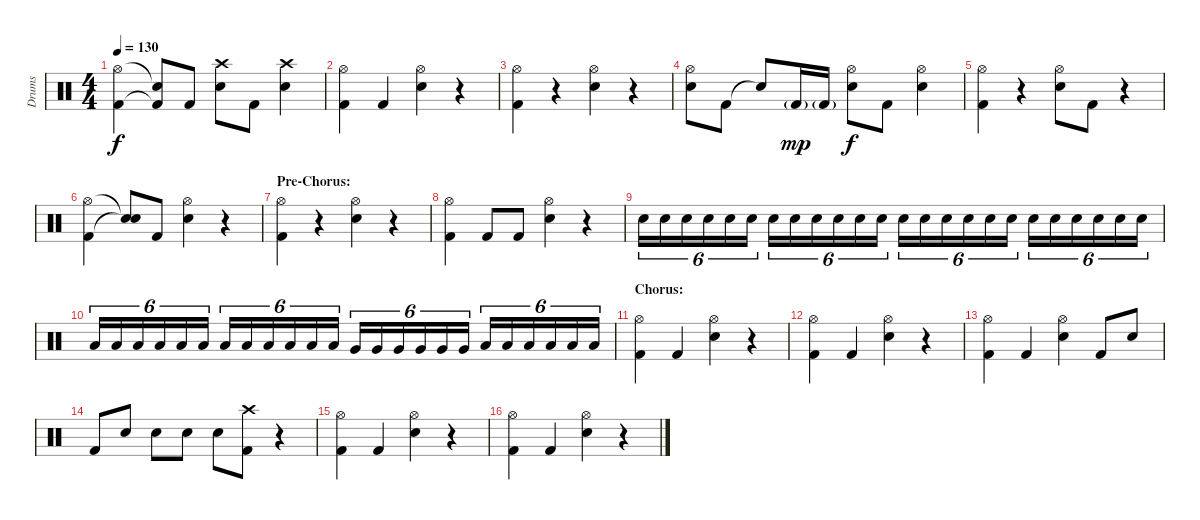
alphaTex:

\track ("Drums" "Drums") {instrument percussion}
\staff {score}
\articulation defaults
\ts (4 4)
\tempo 130
\clef neutral
\ks c
("Hi-Hat (open)" "Kick (hit) 2").4{dy f} ("Snare (hit)"{t} "Kick (hit) 2"{t}).8 "Kick (hit) 2".8 ("Crash high (hit)" "Electric Snare (hit)").8 "Kick (hit) 2".8 ("Crash high (hit)" "Electric Snare (hit)").4 |
("Hi-Hat (open)" "Kick (hit) 2").4 "Kick (hit) 2".4 ("Hi-Hat (open)" "Electric Snare (hit)").4 r.4 |
("Hi-Hat (open)" "Kick (hit) 2").4 r.4 ("Hi-Hat (open)" "Electric Snare (hit)").4 r.4 |
("Hi-Hat (open)" "Electric Snare (hit)").8 "Kick (hit) 2".8 "Snare (hit)"{t}.8 "Kick (hit) 2"{g}.16{dy mp} "Kick (hit) 2"{g}.16 ("Hi-Hat (open)" "Electric Snare (hit)").8{dy f} "Kick (hit) 2".8 ("Hi-Hat (open)" "Electric Snare (hit)").4 |
("Hi-Hat (open)" "Kick (hit) 2").4 r.4 ("Hi-Hat (open)" "Electric Snare (hit)").8 "Kick (hit) 2".8 r.4 |
("Hi-Hat (open)" "Kick (hit) 2").4 ("Snare (hit)"{t} "Snare (hit)"{t}).8 "Kick (hit) 2".8 ("Hi-Hat (open)" "Electric Snare (hit)").4 r.4 |
\section ("" "Pre-Chorus:")
("Hi-Hat (open)" "Kick (hit) 2").4 r.4 ("Hi-Hat (open)" "Electric Snare (hit)").4 r.4 |
("Hi-Hat (open)" "Kick (hit) 2").4 "Kick (hit) 2".8 "Kick (hit) 2".8 ("Hi-Hat (open)" "Electric Snare (hit)").4 r.4 |
"Electric Snare (hit)".16{tu (6 4)} "Electric Snare (hit)".16{tu (6 4)} "Electric Snare (hit)".16{tu (6 4)} "Electric Snare (hit)".16{tu (6 4)} "Electric Snare (hit)".16{tu (6 4)} "Electric Snare (hit)".16{tu (6 4)} "Electric Snare (hit)".16{tu (6 4)} "Electric Snare (hit)".16{tu (6 4)} "Electric Snare (hit)".16{tu (6 4)} "Electric Snare (hit)".16{tu (6 4)} "Electric Snare (hit)".16{tu (6 4)} "Electric Snare (hit)".16{tu (6 4)} "Electric Snare (hit)".16{tu (6 4)} "Electric Snare (hit)".16{tu (6 4)} "Electric Snare (hit)".16{tu (6 4)} "Electric Snare (hit)".16{tu (6 4)} "Electric Snare (hit)".16{tu (6 4)} "Electric Snare (hit)".16{tu (6 4)} "Electric Snare (hit)".16{tu (6 4)} "Electric Snare (hit)".16{tu (6 4)} "Electric Snare (hit)".16{tu (6 4)} "Electric Snare (hit)".16{tu (6 4)} "Electric Snare (hit)".16{tu (6 4)} "Electric Snare (hit)".16{tu (6 4)} |
"Low Tom (hit)".16{tu (6 4)} "Low Tom (hit)".16{tu (6 4)} "Low Tom (hit)".16{tu (6 4)} "Low Tom (hit)".16{tu (6 4)} "Low Tom (hit)".16{tu (6 4)} "Low Tom (hit)".16{tu (6 4)} "Low Tom (hit)".16{tu (6 4)} "Low Tom (hit)".16{tu (6 4)} "Low Tom (hit)".16{tu (6 4)} "Low Tom (hit)".16{tu (6 4)} "Low Tom (hit)".16{tu (6 4)} "Low Tom (hit)".16{tu (6 4)} "Very Low Tom (hit)".16{tu (6 4)} "Very Low Tom (hit)".16{tu (6 4)} "Very Low Tom (hit)".16{tu (6 4)} "Very Low Tom (hit)".16{tu (6 4)} "Very Low Tom (hit)".16{tu (6 4)} "Very Low Tom (hit)".16{tu (6 4)} "Low Floor Tom (hit)".16{tu (6 4)} "Low Floor Tom (hit)".16{tu (6 4)} "Low Floor Tom (hit)".16{tu (6 4)} "Low Floor Tom (hit)".16{tu (6 4)} "Low Floor Tom (hit)".16{tu (6 4)} "Low Floor Tom (hit)".16{tu (6 4)} |
\section ("" "Chorus:")
("Hi-Hat (open)" "Kick (hit) 2").4 "Kick (hit) 2".4 ("Hi-Hat (open)" "Electric Snare (hit)").4 r.4 |
("Hi-Hat (open)" "Kick (hit) 2").4 "Kick (hit) 2".4 ("Hi-Hat (open)" "Electric Snare (hit)").4 r.4 |
("Hi-Hat (open)" "Kick (hit) 2").4 "Kick (hit) 2".4 ("Hi-Hat (open)" "Electric Snare (hit)").4 "Kick (hit) 2".8 "Electric Snare (hit)".8 |
"Kick (hit) 2".8 "Electric Snare (hit)".8 "Electric Snare (hit)".8 "Electric Snare (hit)".8 "Electric Snare (hit)".8 ("Crash high (hit)" "Kick (hit) 2").8 r.4 |
("Hi-Hat (open)" "Kick (hit) 2").4 "Kick (hit) 2".4 ("Hi-Hat (open)" "Electric Snare (hit)").4 r.4 |
("Hi-Hat (open)" "Kick (hit) 2").4 "Kick (hit) 2".4 ("Hi-Hat (open)" "Electric Snare (hit)").4 r.4
